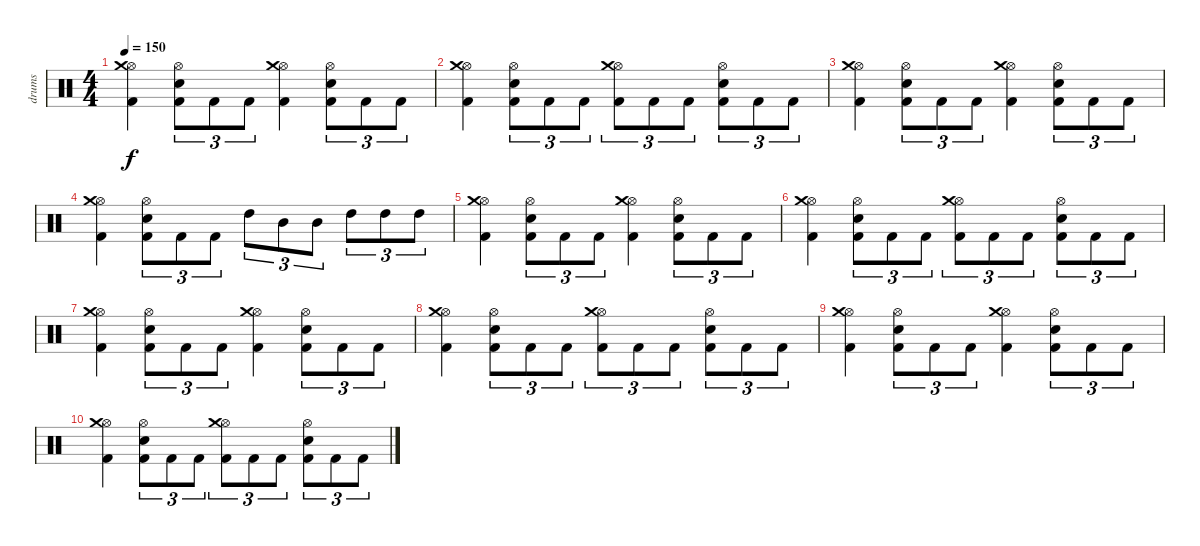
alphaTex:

\track ("drums" "drums") {instrument percussion}
\staff {score}
\articulation defaults
\ts (4 4)
\tempo 150
\clef neutral
\ks c
("Hi-Hat (open)" "Crash medium (hit)" "Kick (hit) 2").4{dy f} ("Snare (hit) 2" "Hi-Hat (open)" "Kick (hit) 2").8{tu (3 2)} "Kick (hit) 2".8{tu (3 2)} "Kick (hit) 2".8{tu (3 2)} ("Hi-Hat (open)" "Crash medium (hit)" "Kick (hit) 2").4 ("Snare (hit) 2" "Hi-Hat (open)" "Kick (hit) 2").8{tu (3 2)} "Kick (hit) 2".8{tu (3 2)} "Kick (hit) 2".8{tu (3 2)} |
("Hi-Hat (open)" "Crash medium (hit)" "Kick (hit) 2").4 ("Snare (hit) 2" "Hi-Hat (open)" "Kick (hit) 2").8{tu (3 2)} "Kick (hit) 2".8{tu (3 2)} "Kick (hit) 2".8{tu (3 2)} ("Hi-Hat (open)" "Crash medium (hit)" "Kick (hit) 2").8{tu (3 2)} "Kick (hit) 2".8{tu (3 2)} "Kick (hit) 2".8{tu (3 2)} ("Snare (hit) 2" "Hi-Hat (open)" "Kick (hit) 2").8{tu (3 2)} "Kick (hit) 2".8{tu (3 2)} "Kick (hit) 2".8{tu (3 2)} |
("Hi-Hat (open)" "Crash medium (hit)" "Kick (hit) 2").4{volume 10} ("Snare (hit) 2" "Hi-Hat (open)" "Kick (hit) 2").8{tu (3 2)} "Kick (hit) 2".8{tu (3 2)} "Kick (hit) 2".8{tu (3 2)} ("Hi-Hat (open)" "Crash medium (hit)" "Kick (hit) 2").4 ("Snare (hit) 2" "Hi-Hat (open)" "Kick (hit) 2").8{tu (3 2)} "Kick (hit) 2".8{tu (3 2)} "Kick (hit) 2".8{tu (3 2)} |
("Hi-Hat (open)" "Crash medium (hit)" "Kick (hit) 2").4 ("Snare (hit) 2" "Hi-Hat (open)" "Kick (hit) 2").8{tu (3 2)} "Kick (hit) 2".8{tu (3 2)} "Kick (hit) 2".8{tu (3 2)} "High Tom (hit)".8{tu (3 2)} "Mid Tom (hit)".8{tu (3 2)} "Mid Tom (hit)".8{tu (3 2)} "High Tom (hit)".8{tu (3 2)} "High Tom (hit)".8{tu (3 2)} "High Tom (hit)".8{tu (3 2)} |
("Hi-Hat (open)" "Crash medium (hit)" "Kick (hit) 2").4 ("Snare (hit) 2" "Hi-Hat (open)" "Kick (hit) 2").8{tu (3 2)} "Kick (hit) 2".8{tu (3 2)} "Kick (hit) 2".8{tu (3 2)} ("Hi-Hat (open)" "Crash medium (hit)" "Kick (hit) 2").4 ("Snare (hit) 2" "Hi-Hat (open)" "Kick (hit) 2").8{tu (3 2)} "Kick (hit) 2".8{tu (3 2)} "Kick (hit) 2".8{tu (3 2)} |
("Hi-Hat (open)" "Crash medium (hit)" "Kick (hit) 2").4 ("Snare (hit) 2" "Hi-Hat (open)" "Kick (hit) 2").8{tu (3 2)} "Kick (hit) 2".8{tu (3 2)} "Kick (hit) 2".8{tu (3 2)} ("Hi-Hat (open)" "Crash medium (hit)" "Kick (hit) 2").8{tu (3 2)} "Kick (hit) 2".8{tu (3 2)} "Kick (hit) 2".8{tu (3 2)} ("Snare (hit) 2" "Hi-Hat (open)" "Kick (hit) 2").8{tu (3 2)} "Kick (hit) 2".8{tu (3 2)} "Kick (hit) 2".8{tu (3 2)} |
("Hi-Hat (open)" "Crash medium (hit)" "Kick (hit) 2").4{volume 7} ("Snare (hit) 2" "Hi-Hat (open)" "Kick (hit) 2").8{tu (3 2)} "Kick (hit) 2".8{tu (3 2)} "Kick (hit) 2".8{tu (3 2)} ("Hi-Hat (open)" "Crash medium (hit)" "Kick (hit) 2").4 ("Snare (hit) 2" "Hi-Hat (open)" "Kick (hit) 2").8{tu (3 2)} "Kick (hit) 2".8{tu (3 2)} "Kick (hit) 2".8{tu (3 2)} |
("Hi-Hat (open)" "Crash medium (hit)" "Kick (hit) 2").4 ("Snare (hit) 2" "Hi-Hat (open)" "Kick (hit) 2").8{tu (3 2)} "Kick (hit) 2".8{tu (3 2)} "Kick (hit) 2".8{tu (3 2)} ("Hi-Hat (open)" "Crash medium (hit)" "Kick (hit) 2").8{tu (3 2)} "Kick (hit) 2".8{tu (3 2)} "Kick (hit) 2".8{tu (3 2)} ("Snare (hit) 2" "Hi-Hat (open)" "Kick (hit) 2").8{tu (3 2)} "Kick (hit) 2".8{tu (3 2)} "Kick (hit) 2".8{tu (3 2)} |
("Hi-Hat (open)" "Crash medium (hit)" "Kick (hit) 2").4 ("Snare (hit) 2" "Hi-Hat (open)" "Kick (hit) 2").8{tu (3 2)} "Kick (hit) 2".8{tu (3 2)} "Kick (hit) 2".8{tu (3 2)} ("Hi-Hat (open)" "Crash medium (hit)" "Kick (hit) 2").4 ("Snare (hit) 2" "Hi-Hat (open)" "Kick (hit) 2").8{tu (3 2)} "Kick (hit) 2".8{tu (3 2)} "Kick (hit) 2".8{tu (3 2)} |
("Hi-Hat (open)" "Crash medium (hit)" "Kick (hit) 2").4 ("Snare (hit) 2" "Hi-Hat (open)" "Kick (hit) 2").8{tu (3 2)} "Kick (hit) 2".8{tu (3 2)} "Kick (hit) 2".8{tu (3 2)} ("Hi-Hat (open)" "Crash medium (hit)" "Kick (hit) 2").8{tu (3 2)} "Kick (hit) 2".8{tu (3 2)} "Kick (hit) 2".8{tu (3 2)} ("Snare (hit) 2" "Hi-Hat (open)" "Kick (hit) 2").8{tu (3 2)} "Kick (hit) 2".8{tu (3 2)} "Kick (hit) 2".8{tu (3 2)}
